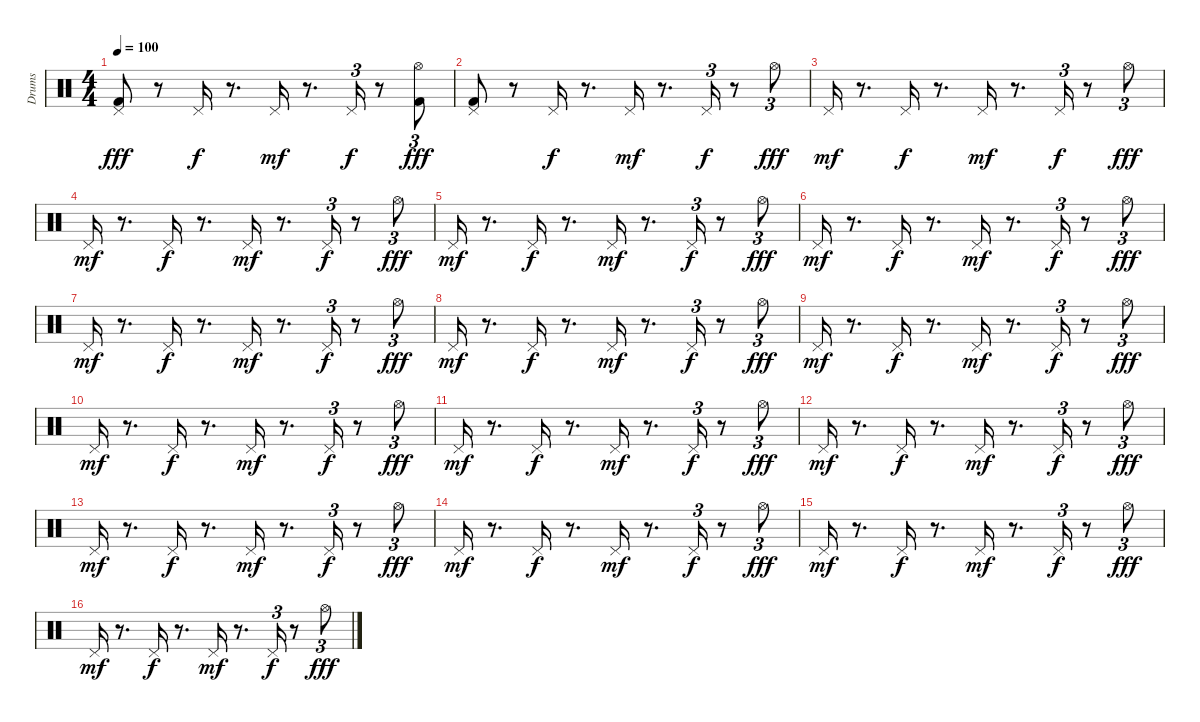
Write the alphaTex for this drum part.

\track ("Drums" "Drums") {instrument percussion}
\staff {score}
\articulation defaults
\ts (4 4)
\tempo 100
\clef neutral
\ks c
("Pedal Hi-Hat (hit)" "Kick (hit) 2").8{dy fff} r.8 "Pedal Hi-Hat (hit)".16{dy f} r.8{d} "Pedal Hi-Hat (hit)".16{dy mf} r.8{d} "Pedal Hi-Hat (hit)".16{tu (3 2) dy f} r.8 ("Hi-Hat (open)" "Kick (hit) 2").8{tu (3 2) dy fff} |
("Pedal Hi-Hat (hit)" "Kick (hit) 2").8 r.8 "Pedal Hi-Hat (hit)".16{dy f} r.8{d} "Pedal Hi-Hat (hit)".16{dy mf} r.8{d} "Pedal Hi-Hat (hit)".16{tu (3 2) dy f} r.8 "Hi-Hat (open)".8{tu (3 2) dy fff} |
"Pedal Hi-Hat (hit)".16{dy mf} r.8{d} "Pedal Hi-Hat (hit)".16{dy f} r.8{d} "Pedal Hi-Hat (hit)".16{dy mf} r.8{d} "Pedal Hi-Hat (hit)".16{tu (3 2) dy f} r.8 "Hi-Hat (open)".8{tu (3 2) dy fff} |
"Pedal Hi-Hat (hit)".16{dy mf} r.8{d} "Pedal Hi-Hat (hit)".16{dy f} r.8{d} "Pedal Hi-Hat (hit)".16{dy mf} r.8{d} "Pedal Hi-Hat (hit)".16{tu (3 2) dy f} r.8 "Hi-Hat (open)".8{tu (3 2) dy fff} |
"Pedal Hi-Hat (hit)".16{dy mf} r.8{d} "Pedal Hi-Hat (hit)".16{dy f} r.8{d} "Pedal Hi-Hat (hit)".16{dy mf} r.8{d} "Pedal Hi-Hat (hit)".16{tu (3 2) dy f} r.8 "Hi-Hat (open)".8{tu (3 2) dy fff} |
"Pedal Hi-Hat (hit)".16{dy mf} r.8{d} "Pedal Hi-Hat (hit)".16{dy f} r.8{d} "Pedal Hi-Hat (hit)".16{dy mf} r.8{d} "Pedal Hi-Hat (hit)".16{tu (3 2) dy f} r.8 "Hi-Hat (open)".8{tu (3 2) dy fff} |
"Pedal Hi-Hat (hit)".16{dy mf} r.8{d} "Pedal Hi-Hat (hit)".16{dy f} r.8{d} "Pedal Hi-Hat (hit)".16{dy mf} r.8{d} "Pedal Hi-Hat (hit)".16{tu (3 2) dy f} r.8 "Hi-Hat (open)".8{tu (3 2) dy fff} |
"Pedal Hi-Hat (hit)".16{dy mf} r.8{d} "Pedal Hi-Hat (hit)".16{dy f} r.8{d} "Pedal Hi-Hat (hit)".16{dy mf} r.8{d} "Pedal Hi-Hat (hit)".16{tu (3 2) dy f} r.8 "Hi-Hat (open)".8{tu (3 2) dy fff} |
"Pedal Hi-Hat (hit)".16{dy mf} r.8{d} "Pedal Hi-Hat (hit)".16{dy f} r.8{d} "Pedal Hi-Hat (hit)".16{dy mf} r.8{d} "Pedal Hi-Hat (hit)".16{tu (3 2) dy f} r.8 "Hi-Hat (open)".8{tu (3 2) dy fff} |
"Pedal Hi-Hat (hit)".16{dy mf} r.8{d} "Pedal Hi-Hat (hit)".16{dy f} r.8{d} "Pedal Hi-Hat (hit)".16{dy mf} r.8{d} "Pedal Hi-Hat (hit)".16{tu (3 2) dy f} r.8 "Hi-Hat (open)".8{tu (3 2) dy fff} |
"Pedal Hi-Hat (hit)".16{dy mf} r.8{d} "Pedal Hi-Hat (hit)".16{dy f} r.8{d} "Pedal Hi-Hat (hit)".16{dy mf} r.8{d} "Pedal Hi-Hat (hit)".16{tu (3 2) dy f} r.8 "Hi-Hat (open)".8{tu (3 2) dy fff} |
"Pedal Hi-Hat (hit)".16{dy mf} r.8{d} "Pedal Hi-Hat (hit)".16{dy f} r.8{d} "Pedal Hi-Hat (hit)".16{dy mf} r.8{d} "Pedal Hi-Hat (hit)".16{tu (3 2) dy f} r.8 "Hi-Hat (open)".8{tu (3 2) dy fff} |
"Pedal Hi-Hat (hit)".16{dy mf} r.8{d} "Pedal Hi-Hat (hit)".16{dy f} r.8{d} "Pedal Hi-Hat (hit)".16{dy mf} r.8{d} "Pedal Hi-Hat (hit)".16{tu (3 2) dy f} r.8 "Hi-Hat (open)".8{tu (3 2) dy fff} |
"Pedal Hi-Hat (hit)".16{dy mf} r.8{d} "Pedal Hi-Hat (hit)".16{dy f} r.8{d} "Pedal Hi-Hat (hit)".16{dy mf} r.8{d} "Pedal Hi-Hat (hit)".16{tu (3 2) dy f} r.8 "Hi-Hat (open)".8{tu (3 2) dy fff} |
"Pedal Hi-Hat (hit)".16{dy mf} r.8{d} "Pedal Hi-Hat (hit)".16{dy f} r.8{d} "Pedal Hi-Hat (hit)".16{dy mf} r.8{d} "Pedal Hi-Hat (hit)".16{tu (3 2) dy f} r.8 "Hi-Hat (open)".8{tu (3 2) dy fff} |
"Pedal Hi-Hat (hit)".16{dy mf} r.8{d} "Pedal Hi-Hat (hit)".16{dy f} r.8{d} "Pedal Hi-Hat (hit)".16{dy mf} r.8{d} "Pedal Hi-Hat (hit)".16{tu (3 2) dy f} r.8 "Hi-Hat (open)".8{tu (3 2) dy fff}
